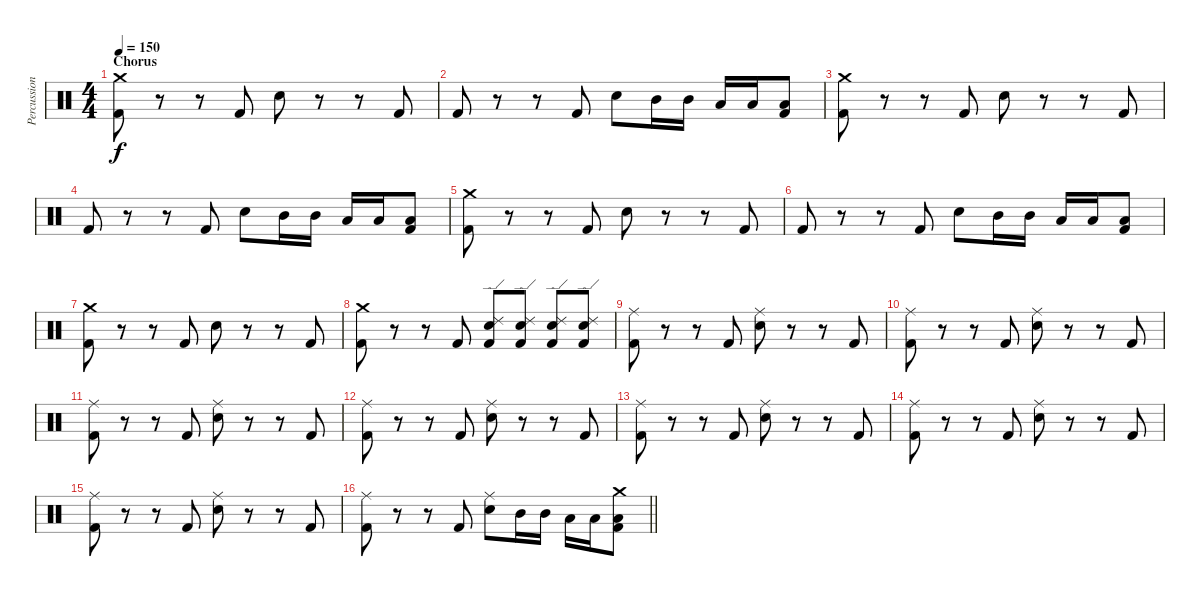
\track ("Percussion" "Percussion") {instrument percussion}
\staff {score}
\articulation defaults
\ts (4 4)
\section ("" "Chorus")
\tempo 150
\clef neutral
\ks c
("Crash medium (hit)" "Kick (hit) 2").8{dy f} r.8 r.8 "Kick (hit) 2".8 "Snare (hit) 2".8 r.8 r.8 "Kick (hit) 2".8 |
"Kick (hit) 2".8 r.8 r.8 "Kick (hit) 2".8 "Snare (hit) 2".8 "Mid Tom (hit)".16 "Mid Tom (hit)".16 "Low Tom (hit)".16 "Low Tom (hit)".16 ("Low Floor Tom (hit)" "Kick (hit) 2").8 |
("Crash medium (hit)" "Kick (hit) 2").8 r.8 r.8 "Kick (hit) 2".8 "Snare (hit) 2".8 r.8 r.8 "Kick (hit) 2".8 |
"Kick (hit) 2".8 r.8 r.8 "Kick (hit) 2".8 "Snare (hit) 2".8 "Mid Tom (hit)".16 "Mid Tom (hit)".16 "Low Tom (hit)".16 "Low Tom (hit)".16 ("Low Floor Tom (hit)" "Kick (hit) 2").8 |
("Crash medium (hit)" "Kick (hit) 2").8 r.8 r.8 "Kick (hit) 2".8 "Snare (hit) 2".8 r.8 r.8 "Kick (hit) 2".8 |
"Kick (hit) 2".8 r.8 r.8 "Kick (hit) 2".8 "Snare (hit) 2".8 "Mid Tom (hit)".16 "Mid Tom (hit)".16 "Low Tom (hit)".16 "Low Tom (hit)".16 ("Low Floor Tom (hit)" "Kick (hit) 2").8 |
("Crash medium (hit)" "Kick (hit) 2").8 r.8 r.8 "Kick (hit) 2".8 "Snare (hit) 2".8 r.8 r.8 "Kick (hit) 2".8 |
("Crash medium (hit)" "Kick (hit) 2").8 r.8 r.8 "Kick (hit) 2".8 ("Ride (edge) 2" "Snare (hit) 2" "Kick (hit) 2").8 ("Ride (edge) 2" "Snare (hit) 2" "Kick (hit) 2").8 ("Ride (edge) 2" "Snare (hit) 2" "Kick (hit) 2").8 ("Ride (edge) 2" "Snare (hit) 2" "Kick (hit) 2").8 |
("Ride (middle)" "Kick (hit) 2").8 r.8 r.8 "Kick (hit) 2".8 ("Ride (middle)" "Snare (hit) 2").8 r.8 r.8 "Kick (hit) 2".8 |
("Ride (middle)" "Kick (hit) 2").8 r.8 r.8 "Kick (hit) 2".8 ("Ride (middle)" "Snare (hit) 2").8 r.8 r.8 "Kick (hit) 2".8 |
("Ride (middle)" "Kick (hit) 2").8 r.8 r.8 "Kick (hit) 2".8 ("Ride (middle)" "Snare (hit) 2").8 r.8 r.8 "Kick (hit) 2".8 |
("Ride (middle)" "Kick (hit) 2").8 r.8 r.8 "Kick (hit) 2".8 ("Ride (middle)" "Snare (hit) 2").8 r.8 r.8 "Kick (hit) 2".8 |
("Ride (middle)" "Kick (hit) 2").8 r.8 r.8 "Kick (hit) 2".8 ("Ride (middle)" "Snare (hit) 2").8 r.8 r.8 "Kick (hit) 2".8 |
("Ride (middle)" "Kick (hit) 2").8 r.8 r.8 "Kick (hit) 2".8 ("Ride (middle)" "Snare (hit) 2").8 r.8 r.8 "Kick (hit) 2".8 |
("Ride (middle)" "Kick (hit) 2").8 r.8 r.8 "Kick (hit) 2".8 ("Ride (middle)" "Snare (hit) 2").8 r.8 r.8 "Kick (hit) 2".8 |
\barLineRight lightlight
("Ride (middle)" "Kick (hit) 2").8 r.8 r.8 "Kick (hit) 2".8 ("Ride (middle)" "Snare (hit) 2").8 "Mid Tom (hit)".16 "Mid Tom (hit)".16 "Low Tom (hit)".16 "Low Tom (hit)".16 ("Crash medium (hit)" "Low Floor Tom (hit)" "Kick (hit) 2").8
